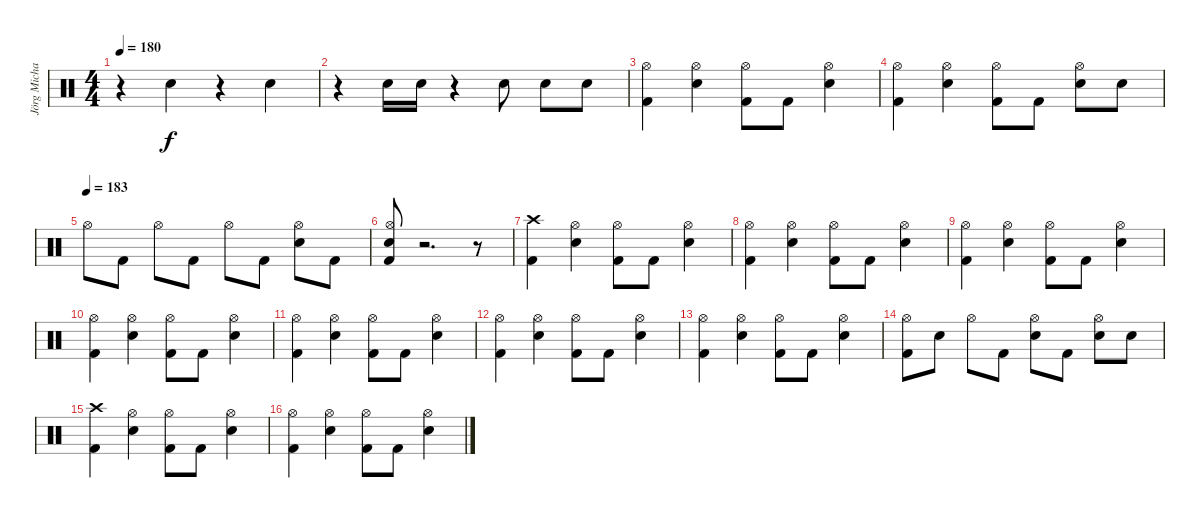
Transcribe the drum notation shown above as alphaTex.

\track ("Jörg Michael" "Jörg Micha") {instrument percussion}
\staff {score}
\articulation defaults
\ts (4 4)
\tempo 180
\clef neutral
\ks c
r.4{dy f} "Snare (hit) 2".4 r.4 "Snare (hit) 2".4 |
r.4 "Snare (hit) 2".16 "Snare (hit) 2".16 r.4 "Snare (hit) 2".8 "Snare (hit) 2".8 "Snare (hit) 2".8 |
("Hi-Hat (open)" "Kick (hit) 2").4 ("Hi-Hat (open)" "Snare (hit) 2").4 ("Hi-Hat (open)" "Kick (hit) 2").8 "Kick (hit) 2".8 ("Hi-Hat (open)" "Snare (hit) 2").4 |
("Hi-Hat (open)" "Kick (hit) 2").4 ("Hi-Hat (open)" "Snare (hit) 2").4 ("Hi-Hat (open)" "Kick (hit) 2").8 "Kick (hit) 2".8 ("Hi-Hat (open)" "Snare (hit) 2").8 "Snare (hit) 2".8 |
\tempo (183)
"Hi-Hat (open)".8 "Kick (hit) 2".8 "Hi-Hat (open)".8 "Kick (hit) 2".8 "Hi-Hat (open)".8 "Kick (hit) 2".8 ("Snare (hit) 2" "Hi-Hat (open)").8 "Kick (hit) 2".8 |
("Kick (hit) 2" "Snare (hit) 2" "Hi-Hat (open)").8 r.2{d} r.8 |
("Kick (hit) 2" "Crash high (hit)").4 ("Snare (hit) 2" "Hi-Hat (open)").4 ("Kick (hit) 2" "Hi-Hat (open)").8 "Kick (hit) 2".8 ("Snare (hit) 2" "Hi-Hat (open)").4 |
("Kick (hit) 2" "Hi-Hat (open)").4 ("Snare (hit) 2" "Hi-Hat (open)").4 ("Kick (hit) 2" "Hi-Hat (open)").8 "Kick (hit) 2".8 ("Snare (hit) 2" "Hi-Hat (open)").4 |
("Kick (hit) 2" "Hi-Hat (open)").4 ("Snare (hit) 2" "Hi-Hat (open)").4 ("Kick (hit) 2" "Hi-Hat (open)").8 "Kick (hit) 2".8 ("Snare (hit) 2" "Hi-Hat (open)").4 |
("Kick (hit) 2" "Hi-Hat (open)").4 ("Snare (hit) 2" "Hi-Hat (open)").4 ("Kick (hit) 2" "Hi-Hat (open)").8 "Kick (hit) 2".8 ("Snare (hit) 2" "Hi-Hat (open)").4 |
("Kick (hit) 2" "Hi-Hat (open)").4 ("Snare (hit) 2" "Hi-Hat (open)").4 ("Kick (hit) 2" "Hi-Hat (open)").8 "Kick (hit) 2".8 ("Snare (hit) 2" "Hi-Hat (open)").4 |
("Kick (hit) 2" "Hi-Hat (open)").4 ("Snare (hit) 2" "Hi-Hat (open)").4 ("Kick (hit) 2" "Hi-Hat (open)").8 "Kick (hit) 2".8 ("Snare (hit) 2" "Hi-Hat (open)").4 |
("Kick (hit) 2" "Hi-Hat (open)").4 ("Snare (hit) 2" "Hi-Hat (open)").4 ("Kick (hit) 2" "Hi-Hat (open)").8 "Kick (hit) 2".8 ("Snare (hit) 2" "Hi-Hat (open)").4 |
("Kick (hit) 2" "Hi-Hat (open)").8 "Snare (hit) 2".8 "Hi-Hat (open)".8 "Kick (hit) 2".8 ("Snare (hit) 2" "Hi-Hat (open)").8 "Kick (hit) 2".8 ("Snare (hit) 2" "Hi-Hat (open)").8 "Snare (hit) 2".8 |
("Kick (hit) 2" "Crash high (hit)").4 ("Snare (hit) 2" "Hi-Hat (open)").4 ("Kick (hit) 2" "Hi-Hat (open)").8 "Kick (hit) 2".8 ("Snare (hit) 2" "Hi-Hat (open)").4 |
("Kick (hit) 2" "Hi-Hat (open)").4 ("Snare (hit) 2" "Hi-Hat (open)").4 ("Kick (hit) 2" "Hi-Hat (open)").8 "Kick (hit) 2".8 ("Snare (hit) 2" "Hi-Hat (open)").4
